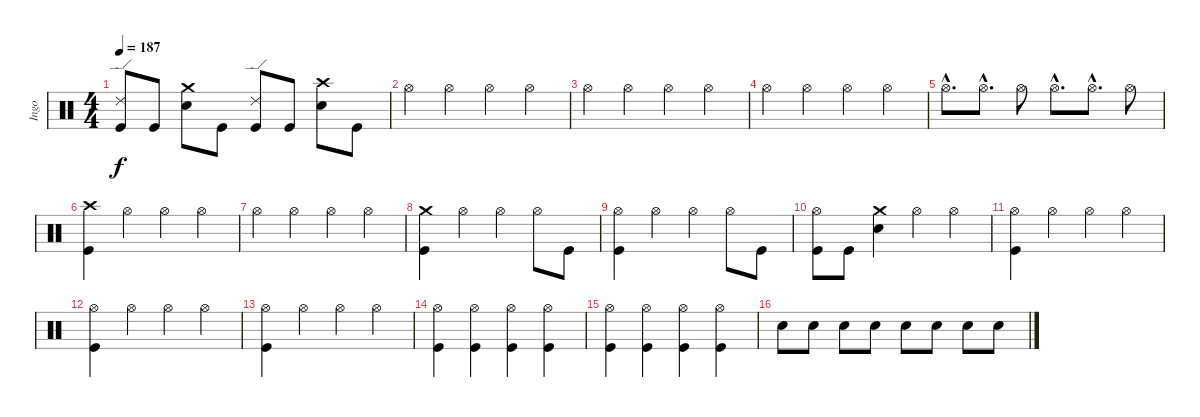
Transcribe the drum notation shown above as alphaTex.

\track ("Ingo" "Ingo") {instrument percussion}
\staff {score}
\articulation defaults
\ts (4 4)
\tempo 187
\clef neutral
\ks c
("Ride (edge) 2" "Kick (hit)").8{dy f} "Kick (hit)".8 ("Crash medium (hit)" "Snare (hit) 2").8 "Kick (hit)".8 ("Ride (edge) 2" "Kick (hit)").8 "Kick (hit)".8 ("Crash high (hit)" "Snare (hit) 2").8 "Kick (hit)".8 |
"Hi-Hat (open)".4 "Hi-Hat (open)".4 "Hi-Hat (open)".4 "Hi-Hat (open)".4 |
"Hi-Hat (open)".4 "Hi-Hat (open)".4 "Hi-Hat (open)".4 "Hi-Hat (open)".4 |
"Hi-Hat (open)".4 "Hi-Hat (open)".4 "Hi-Hat (open)".4 "Hi-Hat (open)".4 |
"Hi-Hat (open)"{hac}.8{d} "Hi-Hat (open)"{hac}.8{d} "Hi-Hat (open)".8 "Hi-Hat (open)"{hac}.8{d} "Hi-Hat (open)"{hac}.8{d} "Hi-Hat (open)".8 |
("Crash high (hit)" "Kick (hit)").4 "Hi-Hat (open)".4 "Hi-Hat (open)".4 "Hi-Hat (open)".4 |
"Hi-Hat (open)".4 "Hi-Hat (open)".4 "Hi-Hat (open)".4 "Hi-Hat (open)".4 |
("Crash medium (hit)" "Kick (hit)").4 "Hi-Hat (open)".4 "Hi-Hat (open)".4 "Hi-Hat (open)".8 "Kick (hit)".8 |
("Hi-Hat (open)" "Kick (hit)").4 "Hi-Hat (open)".4 "Hi-Hat (open)".4 "Hi-Hat (open)".8 "Kick (hit)".8 |
("Hi-Hat (open)" "Kick (hit)").8 "Kick (hit)".8 ("Crash medium (hit)" "Snare (hit) 2").4 "Hi-Hat (open)".4 "Hi-Hat (open)".4 |
("Hi-Hat (open)" "Kick (hit)").4 "Hi-Hat (open)".4 "Hi-Hat (open)".4 "Hi-Hat (open)".4 |
("Hi-Hat (open)" "Kick (hit)").4 "Hi-Hat (open)".4 "Hi-Hat (open)".4 "Hi-Hat (open)".4 |
("Hi-Hat (open)" "Kick (hit)").4 "Hi-Hat (open)".4 "Hi-Hat (open)".4 "Hi-Hat (open)".4 |
("Hi-Hat (open)" "Kick (hit)").4 ("Hi-Hat (open)" "Kick (hit)").4 ("Hi-Hat (open)" "Kick (hit)").4 ("Hi-Hat (open)" "Kick (hit)").4 |
("Hi-Hat (open)" "Kick (hit)").4 ("Hi-Hat (open)" "Kick (hit)").4 ("Hi-Hat (open)" "Kick (hit)").4 ("Hi-Hat (open)" "Kick (hit)").4 |
"Snare (hit) 2".8 "Snare (hit) 2".8 "Snare (hit) 2".8 "Snare (hit) 2".8 "Snare (hit) 2".8 "Snare (hit) 2".8 "Snare (hit) 2".8 "Snare (hit) 2".8
